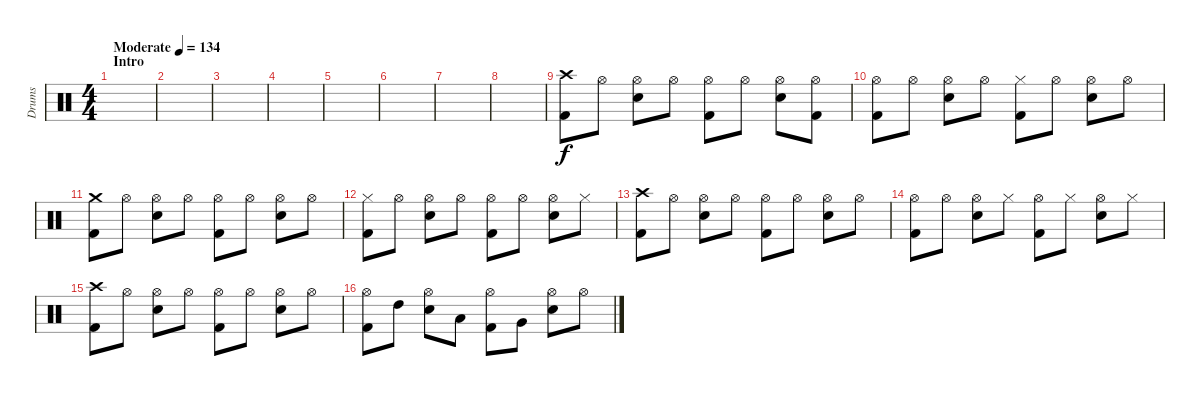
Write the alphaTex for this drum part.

\track ("Drums" "Drums") {instrument percussion}
\staff {score}
\articulation defaults
\ts (4 4)
\section ("" "Intro")
\tempo (134 "Moderate")
\clef neutral
\ks c
|
|
|
|
|
|
|
|
("Crash high (hit)" "Kick (hit) 2").8 "Hi-Hat (open)".8 ("Hi-Hat (open)" "Snare (hit) 2").8 "Hi-Hat (open)".8 ("Hi-Hat (open)" "Kick (hit) 2").8 "Hi-Hat (open)".8 ("Hi-Hat (open)" "Snare (hit) 2").8 ("Hi-Hat (open)" "Kick (hit) 2").8 |
("Hi-Hat (open)" "Kick (hit) 2").8 "Hi-Hat (open)".8 ("Hi-Hat (open)" "Snare (hit) 2").8 "Hi-Hat (open)".8 ("Hi-Hat (closed)" "Kick (hit) 2").8 "Hi-Hat (open)".8 ("Hi-Hat (open)" "Snare (hit) 2").8 "Hi-Hat (open)".8 |
("Crash medium (hit)" "Kick (hit) 2").8 "Hi-Hat (open)".8 ("Hi-Hat (open)" "Snare (hit) 2").8 "Hi-Hat (open)".8 ("Hi-Hat (open)" "Kick (hit) 2").8 "Hi-Hat (open)".8 ("Hi-Hat (open)" "Snare (hit) 2").8 "Hi-Hat (open)".8 |
("Hi-Hat (closed)" "Kick (hit) 2").8 "Hi-Hat (open)".8 ("Hi-Hat (open)" "Snare (hit) 2").8 "Hi-Hat (open)".8 ("Hi-Hat (open)" "Kick (hit) 2").8 "Hi-Hat (open)".8 ("Hi-Hat (open)" "Snare (hit) 2").8 "Hi-Hat (closed)".8 |
("Crash high (hit)" "Kick (hit) 2").8 "Hi-Hat (open)".8 ("Hi-Hat (open)" "Snare (hit) 2").8 "Hi-Hat (open)".8 ("Hi-Hat (open)" "Kick (hit) 2").8 "Hi-Hat (open)".8 ("Hi-Hat (open)" "Snare (hit) 2").8 "Hi-Hat (open)".8 |
("Hi-Hat (open)" "Kick (hit) 2").8 "Hi-Hat (open)".8 ("Hi-Hat (open)" "Snare (hit) 2").8 "Hi-Hat (closed)".8 ("Hi-Hat (open)" "Kick (hit) 2").8 "Hi-Hat (closed)".8 ("Hi-Hat (open)" "Snare (hit) 2").8 "Hi-Hat (closed)".8 |
("Crash high (hit)" "Kick (hit) 2").8 "Hi-Hat (open)".8 ("Hi-Hat (open)" "Snare (hit) 2").8 "Hi-Hat (open)".8 ("Hi-Hat (open)" "Kick (hit) 2").8 "Hi-Hat (open)".8 ("Hi-Hat (open)" "Snare (hit) 2").8 "Hi-Hat (open)".8 |
("Hi-Hat (open)" "Kick (hit) 2").8 "High Tom (hit)".8 ("Hi-Hat (open)" "Snare (hit) 2").8 "Low Tom (hit)".8 ("Hi-Hat (open)" "Kick (hit) 2").8 "Very Low Tom (hit)".8 ("Hi-Hat (open)" "Snare (hit) 2").8 "Hi-Hat (open)".8
